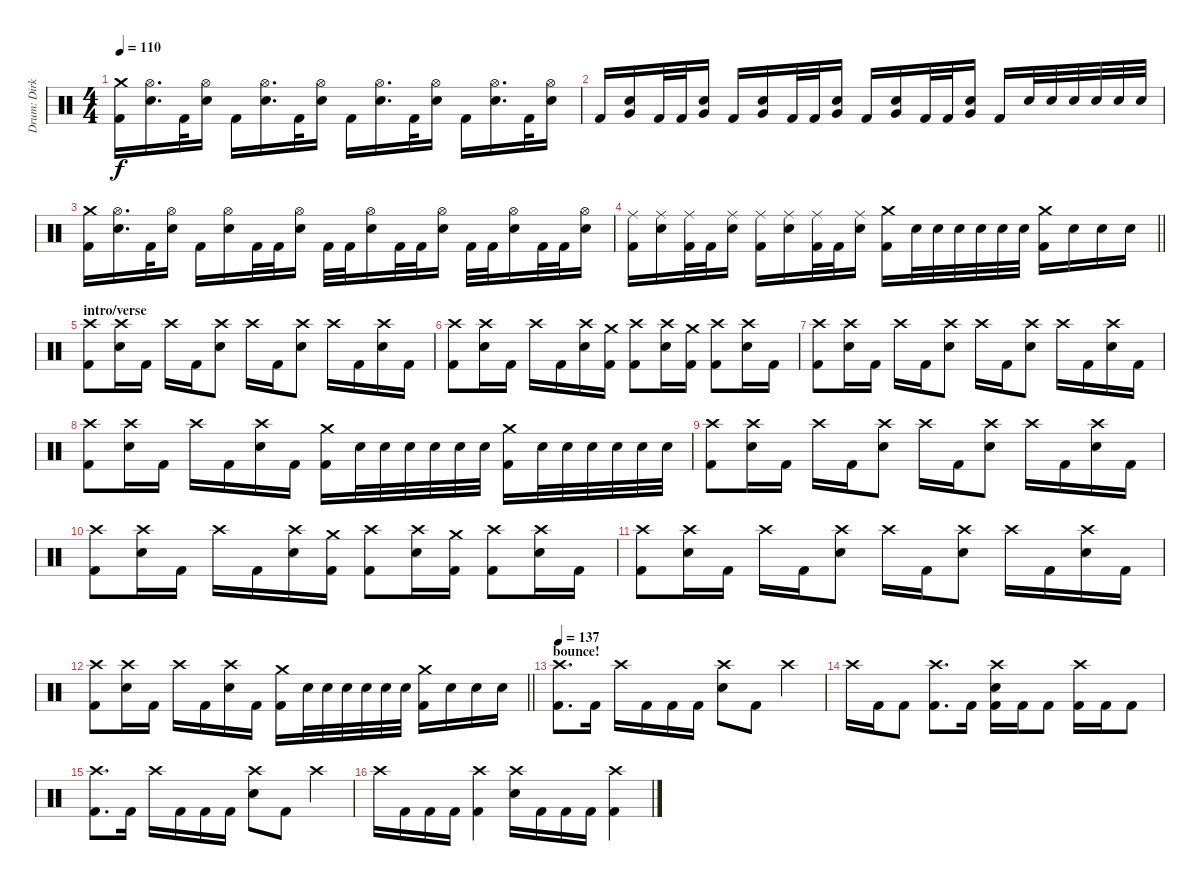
\track ("Drum: Dirk" "Drum: Dirk") {instrument percussion}
\staff {score}
\articulation defaults
\ts (4 4)
\tempo 110
\clef neutral
\ks c
("Crash medium (hit)" "Kick (hit) 2").16{dy f} ("Hi-Hat (open)" "Electric Snare (hit)").16{d} "Kick (hit) 2".32 ("Hi-Hat (open)" "Electric Snare (hit)").16 "Kick (hit) 2".16 ("Hi-Hat (open)" "Electric Snare (hit)").16{d} "Kick (hit) 2".32 ("Hi-Hat (open)" "Electric Snare (hit)").16 "Kick (hit) 2".16 ("Hi-Hat (open)" "Electric Snare (hit)").16{d} "Kick (hit) 2".32 ("Hi-Hat (open)" "Electric Snare (hit)").16 "Kick (hit) 2".16 ("Hi-Hat (open)" "Electric Snare (hit)").16{d} "Kick (hit) 2".32 ("Hi-Hat (open)" "Electric Snare (hit)").16 |
"Kick (hit) 2".16 ("Electric Snare (hit)" "Very Low Tom (hit)").16 "Kick (hit) 2".32 "Kick (hit) 2".32 ("Electric Snare (hit)" "Very Low Tom (hit)").16 "Kick (hit) 2".16 ("Electric Snare (hit)" "Very Low Tom (hit)").16 "Kick (hit) 2".32 "Kick (hit) 2".32 ("Electric Snare (hit)" "Very Low Tom (hit)").16 "Kick (hit) 2".16 ("Electric Snare (hit)" "Very Low Tom (hit)").16 "Kick (hit) 2".32 "Kick (hit) 2".32 ("Electric Snare (hit)" "Very Low Tom (hit)").16 "Kick (hit) 2".16 "Electric Snare (hit)".32 "Electric Snare (hit)".32 "Electric Snare (hit)".32 "Electric Snare (hit)".32 "Electric Snare (hit)".32 "Electric Snare (hit)".32 |
("Crash medium (hit)" "Kick (hit) 2").16 ("Hi-Hat (open)" "Electric Snare (hit)").16{d} "Kick (hit) 2".32 ("Hi-Hat (open)" "Electric Snare (hit)").16 "Kick (hit) 2".16 ("Hi-Hat (open)" "Electric Snare (hit)").16 "Kick (hit) 2".32 "Kick (hit) 2".32 ("Hi-Hat (open)" "Electric Snare (hit)").16 "Kick (hit) 2".32 "Kick (hit) 2".32 ("Hi-Hat (open)" "Electric Snare (hit)").16 "Kick (hit) 2".32 "Kick (hit) 2".32 ("Hi-Hat (open)" "Electric Snare (hit)").16 "Kick (hit) 2".32 "Kick (hit) 2".32 ("Hi-Hat (open)" "Electric Snare (hit)").16 "Kick (hit) 2".32 "Kick (hit) 2".32 ("Hi-Hat (open)" "Electric Snare (hit)").16 |
\barLineRight lightlight
("Ride (middle)" "Kick (hit) 2").16 ("Ride (middle)" "Electric Snare (hit)").16 ("Ride (middle)" "Kick (hit) 2").32 "Kick (hit) 2".32 ("Ride (middle)" "Electric Snare (hit)").16 ("Ride (middle)" "Kick (hit) 2").16 ("Ride (middle)" "Electric Snare (hit)").16 ("Ride (middle)" "Kick (hit) 2").32 "Kick (hit) 2".32 ("Ride (middle)" "Electric Snare (hit)").16 ("Crash medium (hit)" "Kick (hit) 2").16 "Electric Snare (hit)".32 "Electric Snare (hit)".32 "Electric Snare (hit)".32 "Electric Snare (hit)".32 "Electric Snare (hit)".32 "Electric Snare (hit)".32 ("Crash medium (hit)" "Kick (hit) 2").16 "Electric Snare (hit)".16 "Electric Snare (hit)".16 "Electric Snare (hit)".16 |
\section ("" "intro/verse")
("Crash high (hit)" "Kick (hit) 2").8 ("Crash high (hit)" "Electric Snare (hit)").16 "Kick (hit) 2".16 "Crash high (hit)".16 "Kick (hit) 2".16 ("Crash high (hit)" "Electric Snare (hit)").8 "Crash high (hit)".16 "Kick (hit) 2".16 ("Crash high (hit)" "Electric Snare (hit)").8 "Crash high (hit)".16 "Kick (hit) 2".16 ("Crash high (hit)" "Electric Snare (hit)").16 "Kick (hit) 2".16 |
("Crash high (hit)" "Kick (hit) 2").8 ("Crash high (hit)" "Electric Snare (hit)").16 "Kick (hit) 2".16 "Crash high (hit)".16 "Kick (hit) 2".16 ("Crash high (hit)" "Electric Snare (hit)").16 ("Crash medium (hit)" "Kick (hit) 2").16 ("Crash high (hit)" "Kick (hit) 2").8 ("Crash high (hit)" "Electric Snare (hit)").16 ("Crash medium (hit)" "Kick (hit) 2").16 ("Crash high (hit)" "Kick (hit) 2").8 ("Crash high (hit)" "Electric Snare (hit)").16 "Kick (hit) 2".16 |
("Crash high (hit)" "Kick (hit) 2").8 ("Crash high (hit)" "Electric Snare (hit)").16 "Kick (hit) 2".16 "Crash high (hit)".16 "Kick (hit) 2".16 ("Crash high (hit)" "Electric Snare (hit)").8 "Crash high (hit)".16 "Kick (hit) 2".16 ("Crash high (hit)" "Electric Snare (hit)").8 "Crash high (hit)".16 "Kick (hit) 2".16 ("Crash high (hit)" "Electric Snare (hit)").16 "Kick (hit) 2".16 |
("Crash high (hit)" "Kick (hit) 2").8 ("Crash high (hit)" "Electric Snare (hit)").16 "Kick (hit) 2".16 "Crash high (hit)".16 "Kick (hit) 2".16 ("Crash high (hit)" "Electric Snare (hit)").16 "Kick (hit) 2".16 ("Crash medium (hit)" "Kick (hit) 2").16 "Electric Snare (hit)".32 "Electric Snare (hit)".32 "Electric Snare (hit)".32 "Electric Snare (hit)".32 "Electric Snare (hit)".32 "Electric Snare (hit)".32 ("Crash medium (hit)" "Kick (hit) 2").16 "Electric Snare (hit)".32 "Electric Snare (hit)".32 "Electric Snare (hit)".32 "Electric Snare (hit)".32 "Electric Snare (hit)".32 "Electric Snare (hit)".32 |
("Crash high (hit)" "Kick (hit) 2").8 ("Crash high (hit)" "Electric Snare (hit)").16 "Kick (hit) 2".16 "Crash high (hit)".16 "Kick (hit) 2".16 ("Crash high (hit)" "Electric Snare (hit)").8 "Crash high (hit)".16 "Kick (hit) 2".16 ("Crash high (hit)" "Electric Snare (hit)").8 "Crash high (hit)".16 "Kick (hit) 2".16 ("Crash high (hit)" "Electric Snare (hit)").16 "Kick (hit) 2".16 |
("Crash high (hit)" "Kick (hit) 2").8 ("Crash high (hit)" "Electric Snare (hit)").16 "Kick (hit) 2".16 "Crash high (hit)".16 "Kick (hit) 2".16 ("Crash high (hit)" "Electric Snare (hit)").16 ("Crash medium (hit)" "Kick (hit) 2").16 ("Crash high (hit)" "Kick (hit) 2").8 ("Crash high (hit)" "Electric Snare (hit)").16 ("Crash medium (hit)" "Kick (hit) 2").16 ("Crash high (hit)" "Kick (hit) 2").8 ("Crash high (hit)" "Electric Snare (hit)").16 "Kick (hit) 2".16 |
("Crash high (hit)" "Kick (hit) 2").8 ("Crash high (hit)" "Electric Snare (hit)").16 "Kick (hit) 2".16 "Crash high (hit)".16 "Kick (hit) 2".16 ("Crash high (hit)" "Electric Snare (hit)").8 "Crash high (hit)".16 "Kick (hit) 2".16 ("Crash high (hit)" "Electric Snare (hit)").8 "Crash high (hit)".16 "Kick (hit) 2".16 ("Crash high (hit)" "Electric Snare (hit)").16 "Kick (hit) 2".16 |
\barLineRight lightlight
("Crash high (hit)" "Kick (hit) 2").8 ("Crash high (hit)" "Electric Snare (hit)").16 "Kick (hit) 2".16 "Crash high (hit)".16 "Kick (hit) 2".16 ("Crash high (hit)" "Electric Snare (hit)").16 "Kick (hit) 2".16 ("Crash medium (hit)" "Kick (hit) 2").16 "Electric Snare (hit)".32 "Electric Snare (hit)".32 "Electric Snare (hit)".32 "Electric Snare (hit)".32 "Electric Snare (hit)".32 "Electric Snare (hit)".32 ("Crash medium (hit)" "Kick (hit) 2").16 "Electric Snare (hit)".16 "Electric Snare (hit)".16 "Electric Snare (hit)".16 |
\section ("" "bounce!")
\tempo 137
("Crash high (hit)" "Kick (hit) 2").8{d} "Kick (hit) 2".16 "Crash high (hit)".16 "Kick (hit) 2".16 "Kick (hit) 2".16 "Kick (hit) 2".16 ("Crash high (hit)" "Electric Snare (hit)").8 "Kick (hit) 2".8 "Crash high (hit)".4 |
"Crash high (hit)".16 "Kick (hit) 2".16 "Kick (hit) 2".8 ("Crash high (hit)" "Kick (hit) 2").8{d} "Kick (hit) 2".16 ("Crash high (hit)" "Electric Snare (hit)" "Kick (hit) 2").16 "Kick (hit) 2".16 "Kick (hit) 2".8 ("Crash high (hit)" "Kick (hit) 2").16 "Kick (hit) 2".16 "Kick (hit) 2".8 |
("Crash high (hit)" "Kick (hit) 2").8{d} "Kick (hit) 2".16 "Crash high (hit)".16 "Kick (hit) 2".16 "Kick (hit) 2".16 "Kick (hit) 2".16 ("Crash high (hit)" "Electric Snare (hit)").8 "Kick (hit) 2".8 "Crash high (hit)".4 |
"Crash high (hit)".16 "Kick (hit) 2".16 "Kick (hit) 2".16 "Kick (hit) 2".16 ("Crash high (hit)" "Kick (hit) 2").4 ("Crash high (hit)" "Electric Snare (hit)").16 "Kick (hit) 2".16 "Kick (hit) 2".16 "Kick (hit) 2".16 ("Crash high (hit)" "Kick (hit) 2").4
